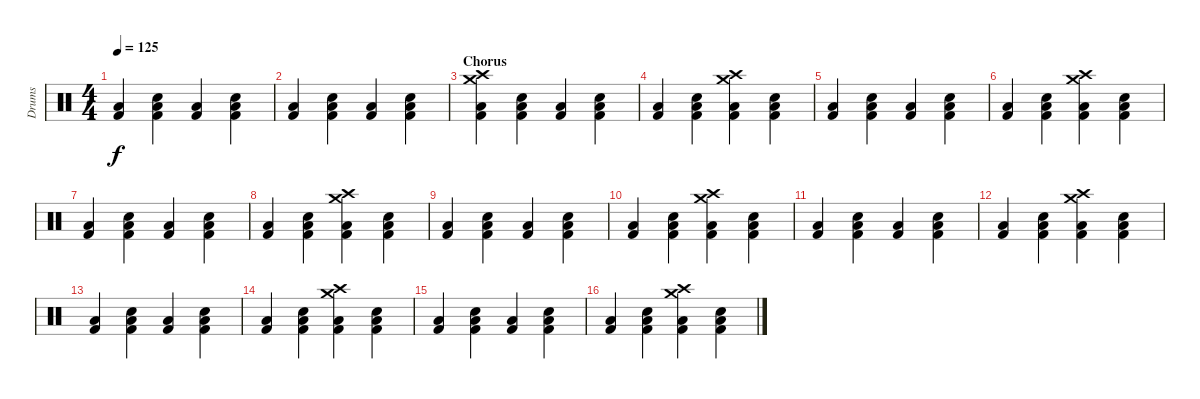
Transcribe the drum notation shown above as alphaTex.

\track ("Drums" "Drums") {instrument percussion}
\staff {score}
\articulation defaults
\ts (4 4)
\tempo 125
\clef neutral
\ks c
("Low Floor Tom (hit)" "Kick (hit) 2").4{dy f} ("Snare (hit) 2" "Low Floor Tom (hit)" "Kick (hit) 2").4 ("Low Floor Tom (hit)" "Kick (hit) 2").4 ("Snare (hit) 2" "Low Floor Tom (hit)" "Kick (hit) 2").4 |
("Low Floor Tom (hit)" "Kick (hit) 2").4 ("Snare (hit) 2" "Low Floor Tom (hit)" "Kick (hit) 2").4 ("Low Floor Tom (hit)" "Kick (hit) 2").4 ("Snare (hit) 2" "Low Floor Tom (hit)" "Kick (hit) 2").4 |
\section ("" "Chorus")
("Crash high (hit)" "Crash medium (hit)" "Low Floor Tom (hit)" "Kick (hit) 2").4 ("Snare (hit) 2" "Low Floor Tom (hit)" "Kick (hit) 2").4 ("Low Floor Tom (hit)" "Kick (hit) 2").4 ("Snare (hit) 2" "Low Floor Tom (hit)" "Kick (hit) 2").4 |
("Low Floor Tom (hit)" "Kick (hit) 2").4 ("Snare (hit) 2" "Low Floor Tom (hit)" "Kick (hit) 2").4 ("Crash high (hit)" "Crash medium (hit)" "Low Floor Tom (hit)" "Kick (hit) 2").4 ("Snare (hit) 2" "Low Floor Tom (hit)" "Kick (hit) 2").4 |
("Low Floor Tom (hit)" "Kick (hit) 2").4 ("Snare (hit) 2" "Low Floor Tom (hit)" "Kick (hit) 2").4 ("Low Floor Tom (hit)" "Kick (hit) 2").4 ("Snare (hit) 2" "Low Floor Tom (hit)" "Kick (hit) 2").4 |
("Low Floor Tom (hit)" "Kick (hit) 2").4 ("Snare (hit) 2" "Low Floor Tom (hit)" "Kick (hit) 2").4 ("Crash high (hit)" "Crash medium (hit)" "Low Floor Tom (hit)" "Kick (hit) 2").4 ("Snare (hit) 2" "Low Floor Tom (hit)" "Kick (hit) 2").4 |
("Low Floor Tom (hit)" "Kick (hit) 2").4 ("Snare (hit) 2" "Low Floor Tom (hit)" "Kick (hit) 2").4 ("Low Floor Tom (hit)" "Kick (hit) 2").4 ("Snare (hit) 2" "Low Floor Tom (hit)" "Kick (hit) 2").4 |
("Low Floor Tom (hit)" "Kick (hit) 2").4 ("Snare (hit) 2" "Low Floor Tom (hit)" "Kick (hit) 2").4 ("Crash high (hit)" "Crash medium (hit)" "Low Floor Tom (hit)" "Kick (hit) 2").4 ("Snare (hit) 2" "Low Floor Tom (hit)" "Kick (hit) 2").4 |
("Low Floor Tom (hit)" "Kick (hit) 2").4 ("Snare (hit) 2" "Low Floor Tom (hit)" "Kick (hit) 2").4 ("Low Floor Tom (hit)" "Kick (hit) 2").4 ("Snare (hit) 2" "Low Floor Tom (hit)" "Kick (hit) 2").4 |
("Low Floor Tom (hit)" "Kick (hit) 2").4 ("Snare (hit) 2" "Low Floor Tom (hit)" "Kick (hit) 2").4 ("Crash high (hit)" "Crash medium (hit)" "Low Floor Tom (hit)" "Kick (hit) 2").4 ("Snare (hit) 2" "Low Floor Tom (hit)" "Kick (hit) 2").4 |
("Low Floor Tom (hit)" "Kick (hit) 2").4 ("Snare (hit) 2" "Low Floor Tom (hit)" "Kick (hit) 2").4 ("Low Floor Tom (hit)" "Kick (hit) 2").4 ("Snare (hit) 2" "Low Floor Tom (hit)" "Kick (hit) 2").4 |
("Low Floor Tom (hit)" "Kick (hit) 2").4 ("Snare (hit) 2" "Low Floor Tom (hit)" "Kick (hit) 2").4 ("Crash high (hit)" "Crash medium (hit)" "Low Floor Tom (hit)" "Kick (hit) 2").4 ("Snare (hit) 2" "Low Floor Tom (hit)" "Kick (hit) 2").4 |
("Low Floor Tom (hit)" "Kick (hit) 2").4 ("Snare (hit) 2" "Low Floor Tom (hit)" "Kick (hit) 2").4 ("Low Floor Tom (hit)" "Kick (hit) 2").4 ("Snare (hit) 2" "Low Floor Tom (hit)" "Kick (hit) 2").4 |
("Low Floor Tom (hit)" "Kick (hit) 2").4 ("Snare (hit) 2" "Low Floor Tom (hit)" "Kick (hit) 2").4 ("Crash high (hit)" "Crash medium (hit)" "Low Floor Tom (hit)" "Kick (hit) 2").4 ("Snare (hit) 2" "Low Floor Tom (hit)" "Kick (hit) 2").4 |
("Low Floor Tom (hit)" "Kick (hit) 2").4 ("Snare (hit) 2" "Low Floor Tom (hit)" "Kick (hit) 2").4 ("Low Floor Tom (hit)" "Kick (hit) 2").4 ("Snare (hit) 2" "Low Floor Tom (hit)" "Kick (hit) 2").4 |
("Low Floor Tom (hit)" "Kick (hit) 2").4 ("Snare (hit) 2" "Low Floor Tom (hit)" "Kick (hit) 2").4 ("Crash high (hit)" "Crash medium (hit)" "Low Floor Tom (hit)" "Kick (hit) 2").4 ("Snare (hit) 2" "Low Floor Tom (hit)" "Kick (hit) 2").4
